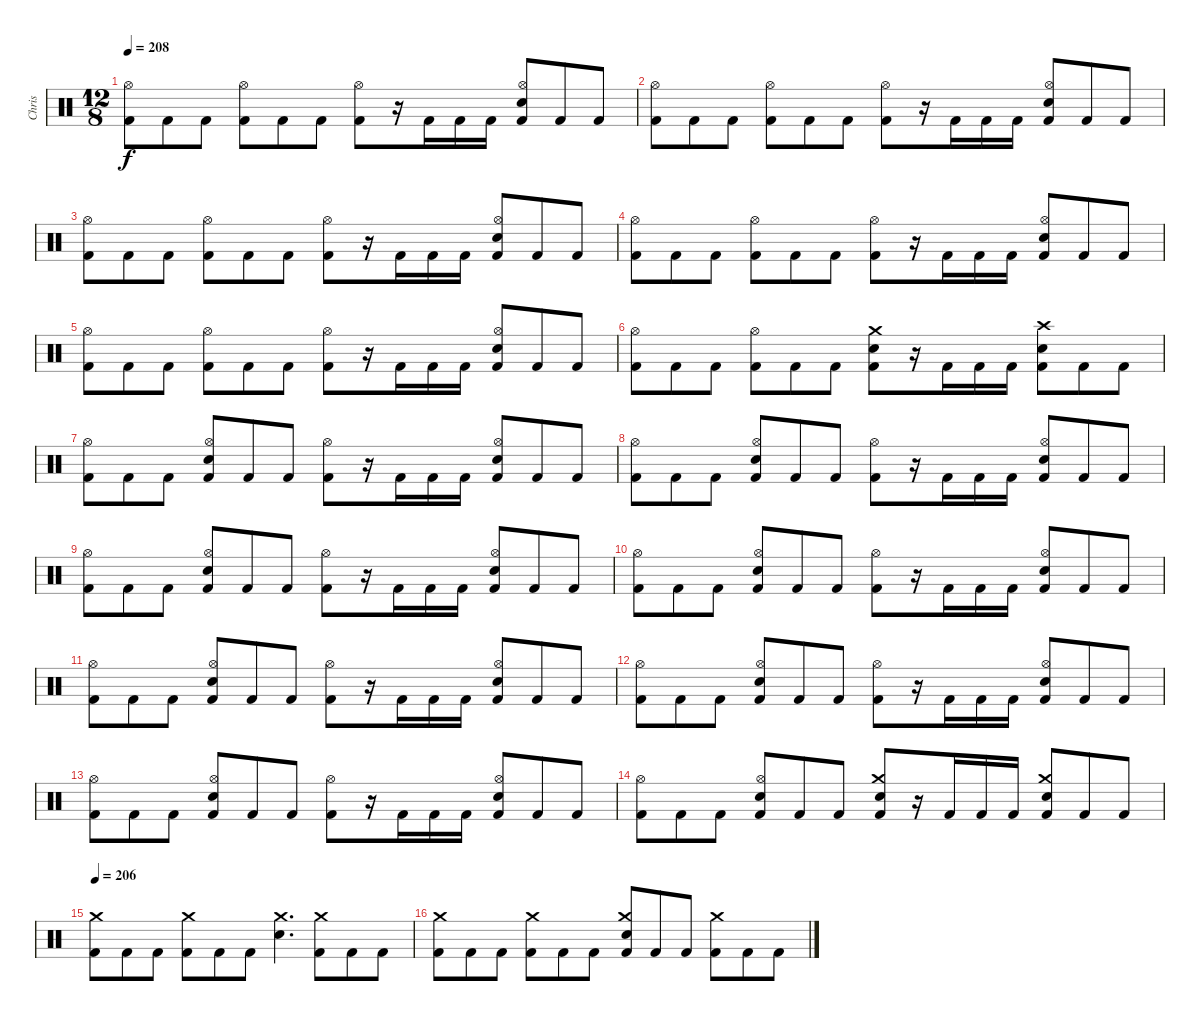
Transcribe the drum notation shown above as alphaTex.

\track ("Chris" "Chris") {instrument percussion}
\staff {score}
\articulation defaults
\ts (12 8)
\tempo 208
\clef neutral
\ks c
("Kick (hit) 2" "Hi-Hat (open)").8{dy f} "Kick (hit) 2".8 "Kick (hit) 2".8 ("Kick (hit) 2" "Hi-Hat (open)").8 "Kick (hit) 2".8 "Kick (hit) 2".8 ("Kick (hit) 2" "Hi-Hat (open)").8 r.16 "Kick (hit) 2".16 "Kick (hit) 2".16 "Kick (hit) 2".16 ("Kick (hit) 2" "Hi-Hat (open)" "Electric Snare (hit)").8 "Kick (hit) 2".8 "Kick (hit) 2".8 |
("Kick (hit) 2" "Hi-Hat (open)").8 "Kick (hit) 2".8 "Kick (hit) 2".8 ("Kick (hit) 2" "Hi-Hat (open)").8 "Kick (hit) 2".8 "Kick (hit) 2".8 ("Kick (hit) 2" "Hi-Hat (open)").8 r.16 "Kick (hit) 2".16 "Kick (hit) 2".16 "Kick (hit) 2".16 ("Kick (hit) 2" "Hi-Hat (open)" "Electric Snare (hit)").8 "Kick (hit) 2".8 "Kick (hit) 2".8 |
("Kick (hit) 2" "Hi-Hat (open)").8 "Kick (hit) 2".8 "Kick (hit) 2".8 ("Kick (hit) 2" "Hi-Hat (open)").8 "Kick (hit) 2".8 "Kick (hit) 2".8 ("Kick (hit) 2" "Hi-Hat (open)").8 r.16 "Kick (hit) 2".16 "Kick (hit) 2".16 "Kick (hit) 2".16 ("Kick (hit) 2" "Hi-Hat (open)" "Electric Snare (hit)").8 "Kick (hit) 2".8 "Kick (hit) 2".8 |
("Kick (hit) 2" "Hi-Hat (open)").8 "Kick (hit) 2".8 "Kick (hit) 2".8 ("Kick (hit) 2" "Hi-Hat (open)").8 "Kick (hit) 2".8 "Kick (hit) 2".8 ("Kick (hit) 2" "Hi-Hat (open)").8 r.16 "Kick (hit) 2".16 "Kick (hit) 2".16 "Kick (hit) 2".16 ("Kick (hit) 2" "Hi-Hat (open)" "Electric Snare (hit)").8 "Kick (hit) 2".8 "Kick (hit) 2".8 |
("Kick (hit) 2" "Hi-Hat (open)").8 "Kick (hit) 2".8 "Kick (hit) 2".8 ("Kick (hit) 2" "Hi-Hat (open)").8 "Kick (hit) 2".8 "Kick (hit) 2".8 ("Kick (hit) 2" "Hi-Hat (open)").8 r.16 "Kick (hit) 2".16 "Kick (hit) 2".16 "Kick (hit) 2".16 ("Kick (hit) 2" "Hi-Hat (open)" "Electric Snare (hit)").8 "Kick (hit) 2".8 "Kick (hit) 2".8 |
("Kick (hit) 2" "Hi-Hat (open)").8 "Kick (hit) 2".8 "Kick (hit) 2".8 ("Kick (hit) 2" "Hi-Hat (open)").8 "Kick (hit) 2".8 "Kick (hit) 2".8 ("Kick (hit) 2" "Crash medium (hit)" "Electric Snare (hit)").8 r.16 "Kick (hit) 2".16 "Kick (hit) 2".16 "Kick (hit) 2".16 ("Kick (hit) 2" "Crash high (hit)" "Electric Snare (hit)").8 "Kick (hit) 2".8 "Kick (hit) 2".8 |
("Kick (hit) 2" "Hi-Hat (open)").8 "Kick (hit) 2".8 "Kick (hit) 2".8 ("Kick (hit) 2" "Hi-Hat (open)" "Snare (hit) 2").8 "Kick (hit) 2".8 "Kick (hit) 2".8 ("Kick (hit) 2" "Hi-Hat (open)").8 r.16 "Kick (hit) 2".16 "Kick (hit) 2".16 "Kick (hit) 2".16 ("Kick (hit) 2" "Hi-Hat (open)" "Electric Snare (hit)").8 "Kick (hit) 2".8 "Kick (hit) 2".8 |
("Kick (hit) 2" "Hi-Hat (open)").8 "Kick (hit) 2".8 "Kick (hit) 2".8 ("Kick (hit) 2" "Hi-Hat (open)" "Electric Snare (hit)").8 "Kick (hit) 2".8 "Kick (hit) 2".8 ("Kick (hit) 2" "Hi-Hat (open)").8 r.16 "Kick (hit) 2".16 "Kick (hit) 2".16 "Kick (hit) 2".16 ("Kick (hit) 2" "Hi-Hat (open)" "Electric Snare (hit)").8 "Kick (hit) 2".8 "Kick (hit) 2".8 |
("Kick (hit) 2" "Hi-Hat (open)").8 "Kick (hit) 2".8 "Kick (hit) 2".8 ("Kick (hit) 2" "Hi-Hat (open)" "Electric Snare (hit)").8 "Kick (hit) 2".8 "Kick (hit) 2".8 ("Kick (hit) 2" "Hi-Hat (open)").8 r.16 "Kick (hit) 2".16 "Kick (hit) 2".16 "Kick (hit) 2".16 ("Kick (hit) 2" "Hi-Hat (open)" "Electric Snare (hit)").8 "Kick (hit) 2".8 "Kick (hit) 2".8 |
("Kick (hit) 2" "Hi-Hat (open)").8 "Kick (hit) 2".8 "Kick (hit) 2".8 ("Kick (hit) 2" "Hi-Hat (open)" "Electric Snare (hit)").8 "Kick (hit) 2".8 "Kick (hit) 2".8 ("Kick (hit) 2" "Hi-Hat (open)").8 r.16 "Kick (hit) 2".16 "Kick (hit) 2".16 "Kick (hit) 2".16 ("Kick (hit) 2" "Hi-Hat (open)" "Electric Snare (hit)").8 "Kick (hit) 2".8 "Kick (hit) 2".8 |
("Kick (hit) 2" "Hi-Hat (open)").8 "Kick (hit) 2".8 "Kick (hit) 2".8 ("Kick (hit) 2" "Hi-Hat (open)" "Electric Snare (hit)").8 "Kick (hit) 2".8 "Kick (hit) 2".8 ("Kick (hit) 2" "Hi-Hat (open)").8 r.16 "Kick (hit) 2".16 "Kick (hit) 2".16 "Kick (hit) 2".16 ("Kick (hit) 2" "Hi-Hat (open)" "Electric Snare (hit)").8 "Kick (hit) 2".8 "Kick (hit) 2".8 |
("Kick (hit) 2" "Hi-Hat (open)").8 "Kick (hit) 2".8 "Kick (hit) 2".8 ("Kick (hit) 2" "Hi-Hat (open)" "Electric Snare (hit)").8 "Kick (hit) 2".8 "Kick (hit) 2".8 ("Kick (hit) 2" "Hi-Hat (open)").8 r.16 "Kick (hit) 2".16 "Kick (hit) 2".16 "Kick (hit) 2".16 ("Kick (hit) 2" "Hi-Hat (open)" "Electric Snare (hit)").8 "Kick (hit) 2".8 "Kick (hit) 2".8 |
("Kick (hit) 2" "Hi-Hat (open)").8 "Kick (hit) 2".8 "Kick (hit) 2".8 ("Kick (hit) 2" "Hi-Hat (open)" "Electric Snare (hit)").8 "Kick (hit) 2".8 "Kick (hit) 2".8 ("Kick (hit) 2" "Hi-Hat (open)").8 r.16 "Kick (hit) 2".16 "Kick (hit) 2".16 "Kick (hit) 2".16 ("Kick (hit) 2" "Hi-Hat (open)" "Electric Snare (hit)").8 "Kick (hit) 2".8 "Kick (hit) 2".8 |
("Kick (hit) 2" "Hi-Hat (open)").8 "Kick (hit) 2".8 "Kick (hit) 2".8 ("Kick (hit) 2" "Hi-Hat (open)" "Snare (hit) 2").8 "Kick (hit) 2".8 "Kick (hit) 2".8 ("Kick (hit) 2" "Crash medium (hit)" "Snare (hit) 2").8 r.16 "Kick (hit) 2".16 "Kick (hit) 2".16 "Kick (hit) 2".16 ("Kick (hit) 2" "Crash medium (hit)" "Snare (hit) 2").8 "Kick (hit) 2".8 "Kick (hit) 2".8 |
\tempo 206
("Crash medium (hit)" "Kick (hit) 2").8 "Kick (hit) 2".8 "Kick (hit) 2".8 ("Crash medium (hit)" "Kick (hit) 2").8 "Kick (hit) 2".8 "Kick (hit) 2".8 ("Crash medium (hit)" "Snare (hit) 2").4{d} ("Crash medium (hit)" "Kick (hit) 2").8 "Kick (hit) 2".8 "Kick (hit) 2".8 |
("Crash medium (hit)" "Kick (hit) 2").8 "Kick (hit) 2".8 "Kick (hit) 2".8 ("Crash medium (hit)" "Kick (hit) 2").8 "Kick (hit) 2".8 "Kick (hit) 2".8 ("Crash medium (hit)" "Kick (hit) 2" "Snare (hit) 2").8 "Kick (hit) 2".8 "Kick (hit) 2".8 ("Crash medium (hit)" "Kick (hit) 2").8 "Kick (hit) 2".8 "Kick (hit) 2".8
